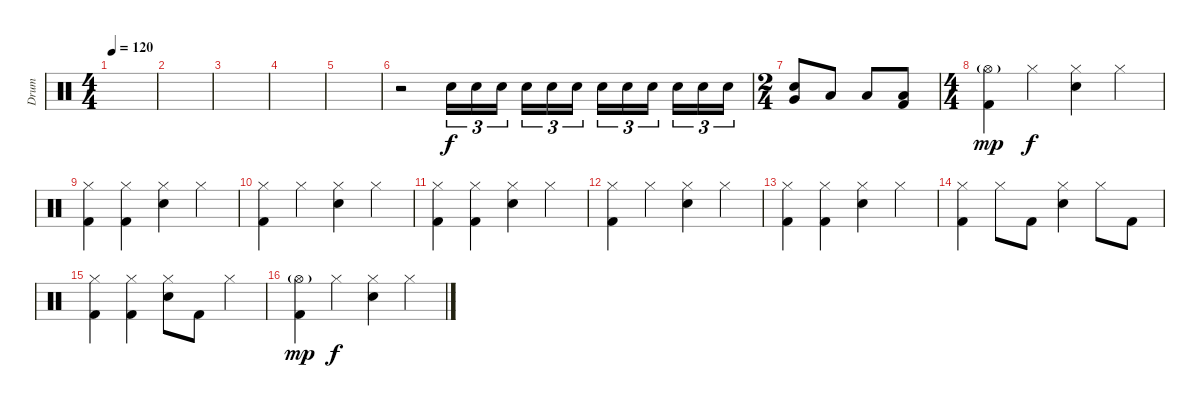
\track ("Drum" "Drum") {instrument percussion}
\staff {score}
\articulation defaults
\ts (4 4)
\tempo 120
\clef neutral
\ks c
|
|
|
|
|
r.2 "Electric Snare (hit)".16{tu (3 2)} "Electric Snare (hit)".16{tu (3 2)} "Electric Snare (hit)".16{tu (3 2)} "Electric Snare (hit)".16{tu (3 2)} "Electric Snare (hit)".16{tu (3 2)} "Electric Snare (hit)".16{tu (3 2)} "Electric Snare (hit)".16{tu (3 2)} "Electric Snare (hit)".16{tu (3 2)} "Electric Snare (hit)".16{tu (3 2)} "Electric Snare (hit)".16{tu (3 2)} "Electric Snare (hit)".16{tu (3 2)} "Electric Snare (hit)".16{tu (3 2)} |
\ts (2 4)
("Very Low Tom (hit)" "Electric Snare (hit)").8 "Low Tom (hit)".8 "Low Floor Tom (hit)".8 ("Low Floor Tom (hit)" "Kick (hit) 2").8 |
\ts (4 4)
("Hi-Hat (open)"{g} "Kick (hit) 2").4{dy mp} "Hi-Hat (closed)".4{dy f} ("Hi-Hat (closed)" "Electric Snare (hit)").4 "Hi-Hat (closed)".4 |
("Hi-Hat (closed)" "Kick (hit) 2").4 ("Hi-Hat (closed)" "Kick (hit) 2").4 ("Hi-Hat (closed)" "Electric Snare (hit)").4 "Hi-Hat (closed)".4 |
("Hi-Hat (closed)" "Kick (hit) 2").4 "Hi-Hat (closed)".4 ("Hi-Hat (closed)" "Electric Snare (hit)").4 "Hi-Hat (closed)".4 |
("Hi-Hat (closed)" "Kick (hit) 2").4 ("Hi-Hat (closed)" "Kick (hit) 2").4 ("Hi-Hat (closed)" "Electric Snare (hit)").4 "Hi-Hat (closed)".4 |
("Hi-Hat (closed)" "Kick (hit) 2").4 "Hi-Hat (closed)".4 ("Hi-Hat (closed)" "Electric Snare (hit)").4 "Hi-Hat (closed)".4 |
("Hi-Hat (closed)" "Kick (hit) 2").4 ("Hi-Hat (closed)" "Kick (hit) 2").4 ("Hi-Hat (closed)" "Electric Snare (hit)").4 "Hi-Hat (closed)".4 |
("Hi-Hat (closed)" "Kick (hit) 2").4 "Hi-Hat (closed)".8 "Kick (hit) 2".8 ("Hi-Hat (closed)" "Electric Snare (hit)").4 "Hi-Hat (closed)".8 "Kick (hit) 2".8 |
("Hi-Hat (closed)" "Kick (hit) 2").4 ("Hi-Hat (closed)" "Kick (hit) 2").4 ("Hi-Hat (closed)" "Electric Snare (hit)").8 "Kick (hit) 2".8 "Hi-Hat (closed)".4 |
("Hi-Hat (open)"{g} "Kick (hit) 2").4{dy mp} "Hi-Hat (closed)".4{dy f} ("Hi-Hat (closed)" "Electric Snare (hit)").4 "Hi-Hat (closed)".4
